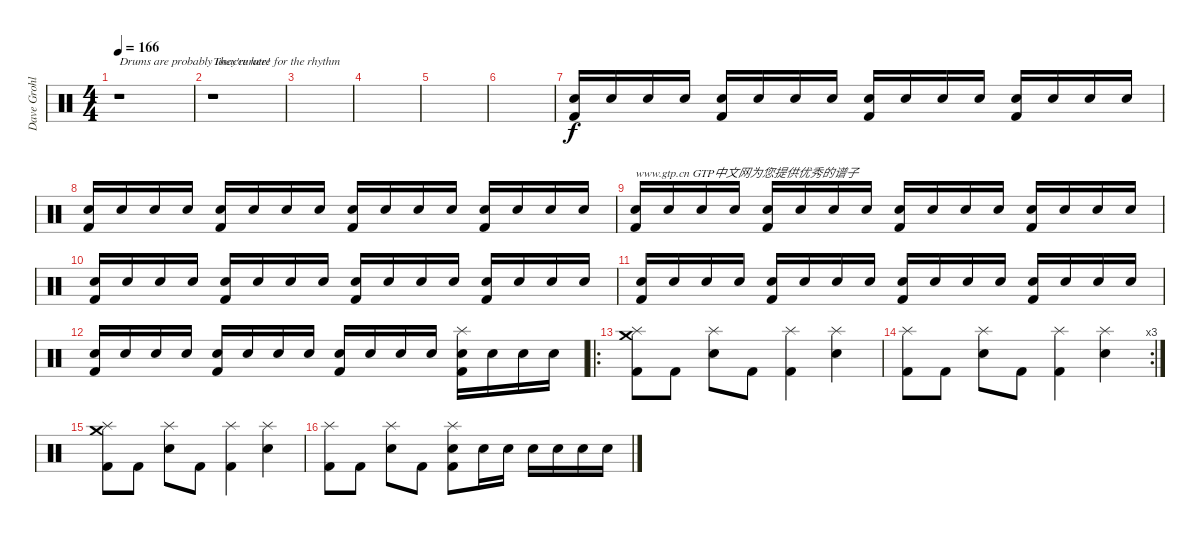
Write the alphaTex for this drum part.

\track ("Dave Grohl" "Dave Grohl") {instrument percussion}
\staff {score}
\articulation defaults
\ts (4 4)
\tempo 166
\clef neutral
\ks c
r.1{txt "Drums are probably unaccurate!" dy f} |
r.1{txt "They're here for the rhythm"} |
|
|
|
|
("Snare (hit) 2" "Kick (hit) 2").16 "Snare (hit) 2".16 "Snare (hit) 2".16 "Snare (hit) 2".16 ("Snare (hit) 2" "Kick (hit) 2").16 "Snare (hit) 2".16 "Snare (hit) 2".16 "Snare (hit) 2".16 ("Snare (hit) 2" "Kick (hit) 2").16 "Snare (hit) 2".16 "Snare (hit) 2".16 "Snare (hit) 2".16 ("Snare (hit) 2" "Kick (hit) 2").16 "Snare (hit) 2".16 "Snare (hit) 2".16 "Snare (hit) 2".16 |
("Snare (hit) 2" "Kick (hit) 2").16 "Snare (hit) 2".16 "Snare (hit) 2".16 "Snare (hit) 2".16 ("Snare (hit) 2" "Kick (hit) 2").16 "Snare (hit) 2".16 "Snare (hit) 2".16 "Snare (hit) 2".16 ("Snare (hit) 2" "Kick (hit) 2").16 "Snare (hit) 2".16 "Snare (hit) 2".16 "Snare (hit) 2".16 ("Snare (hit) 2" "Kick (hit) 2").16 "Snare (hit) 2".16 "Snare (hit) 2".16 "Snare (hit) 2".16 |
("Snare (hit) 2" "Kick (hit) 2").16{txt "www.gtp.cn GTP中文网为您提供优秀的谱子"} "Snare (hit) 2".16 "Snare (hit) 2".16 "Snare (hit) 2".16 ("Snare (hit) 2" "Kick (hit) 2").16 "Snare (hit) 2".16 "Snare (hit) 2".16 "Snare (hit) 2".16 ("Snare (hit) 2" "Kick (hit) 2").16 "Snare (hit) 2".16 "Snare (hit) 2".16 "Snare (hit) 2".16 ("Snare (hit) 2" "Kick (hit) 2").16 "Snare (hit) 2".16 "Snare (hit) 2".16 "Snare (hit) 2".16 |
("Snare (hit) 2" "Kick (hit) 2").16 "Snare (hit) 2".16 "Snare (hit) 2".16 "Snare (hit) 2".16 ("Snare (hit) 2" "Kick (hit) 2").16 "Snare (hit) 2".16 "Snare (hit) 2".16 "Snare (hit) 2".16 ("Snare (hit) 2" "Kick (hit) 2").16 "Snare (hit) 2".16 "Snare (hit) 2".16 "Snare (hit) 2".16 ("Snare (hit) 2" "Kick (hit) 2").16 "Snare (hit) 2".16 "Snare (hit) 2".16 "Snare (hit) 2".16 |
("Snare (hit) 2" "Kick (hit) 2").16 "Snare (hit) 2".16 "Snare (hit) 2".16 "Snare (hit) 2".16 ("Snare (hit) 2" "Kick (hit) 2").16 "Snare (hit) 2".16 "Snare (hit) 2".16 "Snare (hit) 2".16 ("Snare (hit) 2" "Kick (hit) 2").16 "Snare (hit) 2".16 "Snare (hit) 2".16 "Snare (hit) 2".16 ("Snare (hit) 2" "Kick (hit) 2").16 "Snare (hit) 2".16 "Snare (hit) 2".16 "Snare (hit) 2".16 |
("Snare (hit) 2" "Kick (hit) 2").16 "Snare (hit) 2".16 "Snare (hit) 2".16 "Snare (hit) 2".16 ("Snare (hit) 2" "Kick (hit) 2").16 "Snare (hit) 2".16 "Snare (hit) 2".16 "Snare (hit) 2".16 ("Snare (hit) 2" "Kick (hit) 2").16 "Snare (hit) 2".16 "Snare (hit) 2".16 "Snare (hit) 2".16 ("Splash (hit)" "Snare (hit) 2" "Kick (hit) 2").16 "Snare (hit) 2".16 "Snare (hit) 2".16 "Snare (hit) 2".16 |
\ro
("Splash (hit)" "Crash medium (hit)" "Kick (hit) 2").8 "Kick (hit) 2".8 ("Splash (hit)" "Snare (hit) 2").8 "Kick (hit) 2".8 ("Splash (hit)" "Kick (hit) 2").4 ("Splash (hit)" "Snare (hit) 2").4 |
\rc 3
("Splash (hit)" "Kick (hit) 2").8 "Kick (hit) 2".8 ("Splash (hit)" "Snare (hit) 2").8 "Kick (hit) 2".8 ("Splash (hit)" "Kick (hit) 2").4 ("Splash (hit)" "Snare (hit) 2").4 |
("Splash (hit)" "Crash medium (hit)" "Kick (hit) 2").8 "Kick (hit) 2".8 ("Splash (hit)" "Snare (hit) 2").8 "Kick (hit) 2".8 ("Splash (hit)" "Kick (hit) 2").4 ("Splash (hit)" "Snare (hit) 2").4 |
("Splash (hit)" "Kick (hit) 2").8 "Kick (hit) 2".8 ("Splash (hit)" "Snare (hit) 2").8 "Kick (hit) 2".8 ("Splash (hit)" "Snare (hit) 2" "Kick (hit) 2").8 "Snare (hit) 2".16 "Snare (hit) 2".16 "Snare (hit) 2".16 "Snare (hit) 2".16 "Snare (hit) 2".16 "Snare (hit) 2".16
